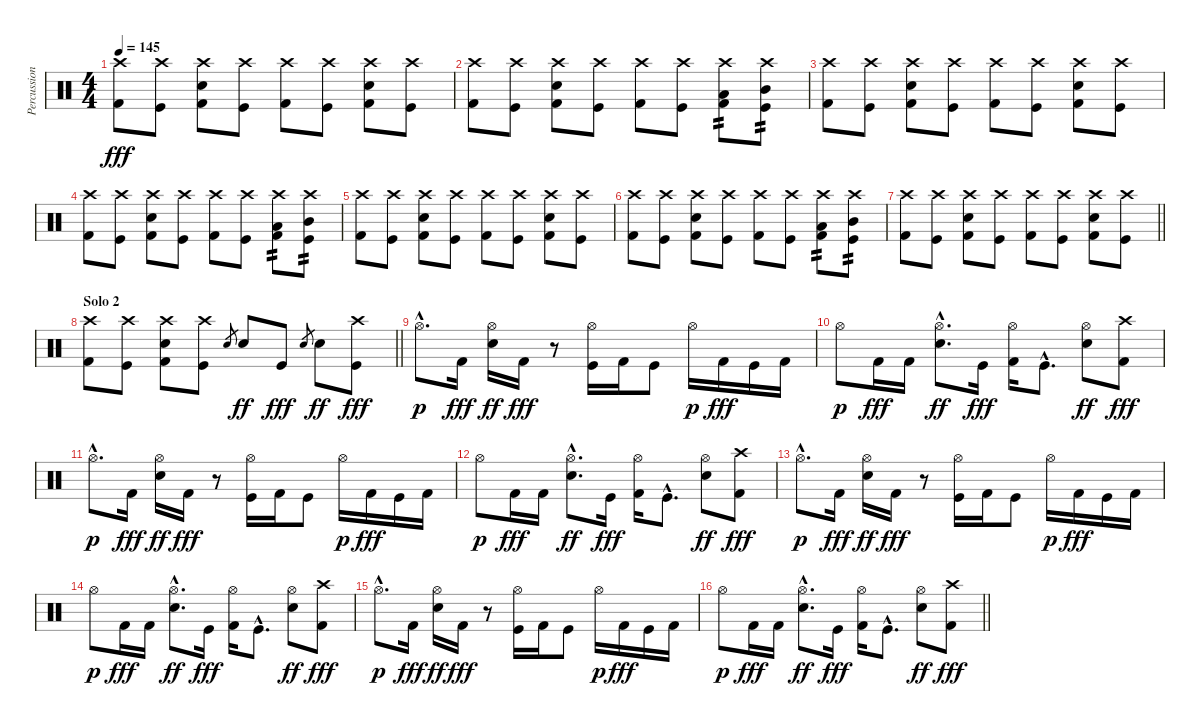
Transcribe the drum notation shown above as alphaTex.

\track ("Percussion" "Percussion") {instrument percussion}
\staff {score}
\articulation defaults
\ts (4 4)
\tempo 145
\clef neutral
\ks c
("Crash high (hit)" "Kick (hit) 2").8{dy fff} ("Crash high (hit)" "Kick (hit)").8 ("Crash high (hit)" "Snare (hit) 2" "Kick (hit) 2").8 ("Crash high (hit)" "Kick (hit)").8 ("Crash high (hit)" "Kick (hit) 2").8 ("Crash high (hit)" "Kick (hit)").8 ("Crash high (hit)" "Snare (hit) 2" "Kick (hit) 2").8 ("Crash high (hit)" "Kick (hit)").8 |
("Crash high (hit)" "Kick (hit) 2").8 ("Crash high (hit)" "Kick (hit)").8 ("Crash high (hit)" "Snare (hit) 2" "Kick (hit) 2").8 ("Crash high (hit)" "Kick (hit)").8 ("Crash high (hit)" "Kick (hit) 2").8 ("Crash high (hit)" "Kick (hit)").8 ("Crash high (hit)" "Low Tom (hit)" "Kick (hit) 2").8{tp 2} ("Crash high (hit)" "Mid Tom (hit)" "Kick (hit)").8{tp 2} |
("Crash high (hit)" "Kick (hit) 2").8 ("Crash high (hit)" "Kick (hit)").8 ("Crash high (hit)" "Snare (hit) 2" "Kick (hit) 2").8 ("Crash high (hit)" "Kick (hit)").8 ("Crash high (hit)" "Kick (hit) 2").8 ("Crash high (hit)" "Kick (hit)").8 ("Crash high (hit)" "Snare (hit) 2" "Kick (hit) 2").8 ("Crash high (hit)" "Kick (hit)").8 |
("Crash high (hit)" "Kick (hit) 2").8 ("Crash high (hit)" "Kick (hit)").8 ("Crash high (hit)" "Snare (hit) 2" "Kick (hit) 2").8 ("Crash high (hit)" "Kick (hit)").8 ("Crash high (hit)" "Kick (hit) 2").8 ("Crash high (hit)" "Kick (hit)").8 ("Crash high (hit)" "Low Tom (hit)" "Kick (hit) 2").8{tp 2} ("Crash high (hit)" "Mid Tom (hit)" "Kick (hit)").8{tp 2} |
("Crash high (hit)" "Kick (hit) 2").8 ("Crash high (hit)" "Kick (hit)").8 ("Crash high (hit)" "Snare (hit) 2" "Kick (hit) 2").8 ("Crash high (hit)" "Kick (hit)").8 ("Crash high (hit)" "Kick (hit) 2").8 ("Crash high (hit)" "Kick (hit)").8 ("Crash high (hit)" "Snare (hit) 2" "Kick (hit) 2").8 ("Crash high (hit)" "Kick (hit)").8 |
("Crash high (hit)" "Kick (hit) 2").8 ("Crash high (hit)" "Kick (hit)").8 ("Crash high (hit)" "Snare (hit) 2" "Kick (hit) 2").8 ("Crash high (hit)" "Kick (hit)").8 ("Crash high (hit)" "Kick (hit) 2").8 ("Crash high (hit)" "Kick (hit)").8 ("Crash high (hit)" "Low Tom (hit)" "Kick (hit) 2").8{tp 2} ("Crash high (hit)" "Mid Tom (hit)" "Kick (hit)").8{tp 2} |
\barLineRight lightlight
("Crash high (hit)" "Kick (hit) 2").8 ("Crash high (hit)" "Kick (hit)").8 ("Crash high (hit)" "Snare (hit) 2" "Kick (hit) 2").8 ("Crash high (hit)" "Kick (hit)").8 ("Crash high (hit)" "Kick (hit) 2").8 ("Crash high (hit)" "Kick (hit)").8 ("Crash high (hit)" "Snare (hit) 2" "Kick (hit) 2").8 ("Crash high (hit)" "Kick (hit)").8 |
\section ("" "Solo 2")
\barLineRight lightlight
("Crash high (hit)" "Kick (hit) 2").8 ("Crash high (hit)" "Kick (hit)").8 ("Crash high (hit)" "Snare (hit) 2" "Kick (hit) 2").8 ("Crash high (hit)" "Kick (hit)").8 "Snare (hit) 2".8{gr} "Snare (hit) 2".8{dy ff} "Kick (hit)".8{dy fff} "Snare (hit) 2".8{gr} "Snare (hit) 2".8{dy ff} ("Crash high (hit)" "Kick (hit)").8{dy fff} |
"Hi-Hat (open)"{hac}.8{d dy p} "Kick (hit) 2".16{dy fff} ("Hi-Hat (open)" "Snare (hit) 2").16{dy ff} "Kick (hit) 2".16{dy fff} r.8 ("Hi-Hat (open)" "Kick (hit)").16 "Kick (hit) 2".16 "Kick (hit)".8 "Hi-Hat (open)".16{dy p} "Kick (hit) 2".16{dy fff} "Kick (hit)".16 "Kick (hit) 2".16 |
"Hi-Hat (open)".8{dy p} "Kick (hit) 2".16{dy fff} "Kick (hit) 2".16 ("Hi-Hat (open)"{hac} "Snare (hit) 2"{hac}).8{d dy ff} "Kick (hit)".16{dy fff} ("Hi-Hat (open)" "Kick (hit) 2").16 "Kick (hit)"{hac}.8{d} ("Hi-Hat (open)" "Snare (hit) 2").8{dy ff} ("Crash high (hit)" "Kick (hit) 2").8{dy fff} |
"Hi-Hat (open)"{hac}.8{d dy p} "Kick (hit) 2".16{dy fff} ("Hi-Hat (open)" "Snare (hit) 2").16{dy ff} "Kick (hit) 2".16{dy fff} r.8 ("Hi-Hat (open)" "Kick (hit)").16 "Kick (hit) 2".16 "Kick (hit)".8 "Hi-Hat (open)".16{dy p} "Kick (hit) 2".16{dy fff} "Kick (hit)".16 "Kick (hit) 2".16 |
"Hi-Hat (open)".8{dy p} "Kick (hit) 2".16{dy fff} "Kick (hit) 2".16 ("Hi-Hat (open)"{hac} "Snare (hit) 2"{hac}).8{d dy ff} "Kick (hit)".16{dy fff} ("Hi-Hat (open)" "Kick (hit) 2").16 "Kick (hit)"{hac}.8{d} ("Hi-Hat (open)" "Snare (hit) 2").8{dy ff} ("Crash high (hit)" "Kick (hit) 2").8{dy fff} |
"Hi-Hat (open)"{hac}.8{d dy p} "Kick (hit) 2".16{dy fff} ("Hi-Hat (open)" "Snare (hit) 2").16{dy ff} "Kick (hit) 2".16{dy fff} r.8 ("Hi-Hat (open)" "Kick (hit)").16 "Kick (hit) 2".16 "Kick (hit)".8 "Hi-Hat (open)".16{dy p} "Kick (hit) 2".16{dy fff} "Kick (hit)".16 "Kick (hit) 2".16 |
"Hi-Hat (open)".8{dy p} "Kick (hit) 2".16{dy fff} "Kick (hit) 2".16 ("Hi-Hat (open)"{hac} "Snare (hit) 2"{hac}).8{d dy ff} "Kick (hit)".16{dy fff} ("Hi-Hat (open)" "Kick (hit) 2").16 "Kick (hit)"{hac}.8{d} ("Hi-Hat (open)" "Snare (hit) 2").8{dy ff} ("Crash high (hit)" "Kick (hit) 2").8{dy fff} |
"Hi-Hat (open)"{hac}.8{d dy p} "Kick (hit) 2".16{dy fff} ("Hi-Hat (open)" "Snare (hit) 2").16{dy ff} "Kick (hit) 2".16{dy fff} r.8 ("Hi-Hat (open)" "Kick (hit)").16 "Kick (hit) 2".16 "Kick (hit)".8 "Hi-Hat (open)".16{dy p} "Kick (hit) 2".16{dy fff} "Kick (hit)".16 "Kick (hit) 2".16 |
\barLineRight lightlight "Hi-Hat (open)".8{dy p} "Kick (hit) 2".16{dy fff} "Kick (hit) 2".16
("Hi-Hat (open)"{hac} "Snare (hit) 2"{hac}).8{d dy ff} "Kick (hit)".16{dy fff} ("Hi-Hat (open)" "Kick (hit) 2").16 "Kick (hit)"{hac}.8{d} ("Hi-Hat (open)" "Snare (hit) 2").8{dy ff} ("Crash high (hit)" "Kick (hit) 2").8{dy fff}
